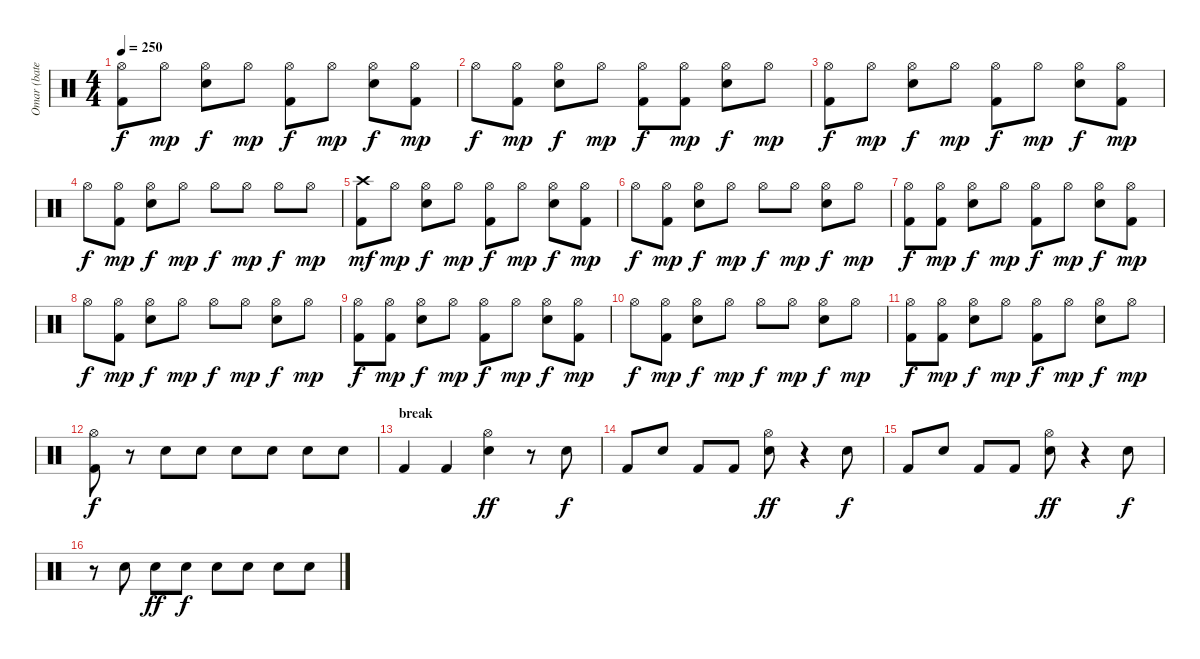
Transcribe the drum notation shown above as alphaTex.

\track ("Omar (batería)" "Omar (bate") {instrument percussion}
\staff {score}
\articulation defaults
\ts (4 4)
\tempo 250
\clef neutral
\ks c
("Hi-Hat (open)" "Kick (hit) 2").8{dy f} "Hi-Hat (open)".8{dy mp} ("Hi-Hat (open)" "Snare (hit) 2").8{dy f} "Hi-Hat (open)".8{dy mp} ("Hi-Hat (open)" "Kick (hit) 2").8{dy f} "Hi-Hat (open)".8{dy mp} ("Hi-Hat (open)" "Snare (hit) 2").8{dy f} ("Hi-Hat (open)" "Kick (hit) 2").8{dy mp} |
"Hi-Hat (open)".8{dy f} ("Hi-Hat (open)" "Kick (hit) 2").8{dy mp} ("Hi-Hat (open)" "Snare (hit) 2").8{dy f} "Hi-Hat (open)".8{dy mp} ("Hi-Hat (open)" "Kick (hit) 2").8{dy f} ("Hi-Hat (open)" "Kick (hit) 2").8{dy mp} ("Hi-Hat (open)" "Snare (hit) 2").8{dy f} "Hi-Hat (open)".8{dy mp} |
("Hi-Hat (open)" "Kick (hit) 2").8{dy f} "Hi-Hat (open)".8{dy mp} ("Hi-Hat (open)" "Snare (hit) 2").8{dy f} "Hi-Hat (open)".8{dy mp} ("Hi-Hat (open)" "Kick (hit) 2").8{dy f} "Hi-Hat (open)".8{dy mp} ("Hi-Hat (open)" "Snare (hit) 2").8{dy f} ("Hi-Hat (open)" "Kick (hit) 2").8{dy mp} |
"Hi-Hat (open)".8{dy f} ("Hi-Hat (open)" "Kick (hit) 2").8{dy mp} ("Hi-Hat (open)" "Snare (hit) 2").8{dy f} "Hi-Hat (open)".8{dy mp} "Hi-Hat (open)".8{dy f} "Hi-Hat (open)".8{dy mp} "Hi-Hat (open)".8{dy f} "Hi-Hat (open)".8{dy mp} |
\section ("" "")
("Crash high (hit)" "Kick (hit) 2").8{dy mf} "Hi-Hat (open)".8{dy mp} ("Hi-Hat (open)" "Snare (hit) 2").8{dy f} "Hi-Hat (open)".8{dy mp} ("Hi-Hat (open)" "Kick (hit) 2").8{dy f} "Hi-Hat (open)".8{dy mp} ("Hi-Hat (open)" "Snare (hit) 2").8{dy f} ("Hi-Hat (open)" "Kick (hit) 2").8{dy mp} |
"Hi-Hat (open)".8{dy f} ("Hi-Hat (open)" "Kick (hit) 2").8{dy mp} ("Hi-Hat (open)" "Snare (hit) 2").8{dy f} "Hi-Hat (open)".8{dy mp} "Hi-Hat (open)".8{dy f} "Hi-Hat (open)".8{dy mp} ("Hi-Hat (open)" "Snare (hit) 2").8{dy f} "Hi-Hat (open)".8{dy mp} |
("Hi-Hat (open)" "Kick (hit) 2").8{dy f} ("Hi-Hat (open)" "Kick (hit) 2").8{dy mp} ("Hi-Hat (open)" "Snare (hit) 2").8{dy f} "Hi-Hat (open)".8{dy mp} ("Hi-Hat (open)" "Kick (hit) 2").8{dy f} "Hi-Hat (open)".8{dy mp} ("Hi-Hat (open)" "Snare (hit) 2").8{dy f} ("Hi-Hat (open)" "Kick (hit) 2").8{dy mp} |
"Hi-Hat (open)".8{dy f} ("Hi-Hat (open)" "Kick (hit) 2").8{dy mp} ("Hi-Hat (open)" "Snare (hit) 2").8{dy f} "Hi-Hat (open)".8{dy mp} "Hi-Hat (open)".8{dy f} "Hi-Hat (open)".8{dy mp} ("Hi-Hat (open)" "Snare (hit) 2").8{dy f} "Hi-Hat (open)".8{dy mp} |
("Hi-Hat (open)" "Kick (hit) 2").8{dy f} ("Hi-Hat (open)" "Kick (hit) 2").8{dy mp} ("Hi-Hat (open)" "Snare (hit) 2").8{dy f} "Hi-Hat (open)".8{dy mp} ("Hi-Hat (open)" "Kick (hit) 2").8{dy f} "Hi-Hat (open)".8{dy mp} ("Hi-Hat (open)" "Snare (hit) 2").8{dy f} ("Hi-Hat (open)" "Kick (hit) 2").8{dy mp} |
"Hi-Hat (open)".8{dy f} ("Hi-Hat (open)" "Kick (hit) 2").8{dy mp} ("Hi-Hat (open)" "Snare (hit) 2").8{dy f} "Hi-Hat (open)".8{dy mp} "Hi-Hat (open)".8{dy f} "Hi-Hat (open)".8{dy mp} ("Hi-Hat (open)" "Snare (hit) 2").8{dy f} "Hi-Hat (open)".8{dy mp} |
("Hi-Hat (open)" "Kick (hit) 2").8{dy f} ("Hi-Hat (open)" "Kick (hit) 2").8{dy mp} ("Hi-Hat (open)" "Snare (hit) 2").8{dy f} "Hi-Hat (open)".8{dy mp} ("Hi-Hat (open)" "Kick (hit) 2").8{dy f} "Hi-Hat (open)".8{dy mp} ("Hi-Hat (open)" "Snare (hit) 2").8{dy f} "Hi-Hat (open)".8{dy mp} |
("Hi-Hat (open)" "Kick (hit) 2").8{dy f} r.8 "Snare (hit) 2".8 "Snare (hit) 2".8 "Snare (hit) 2".8 "Snare (hit) 2".8 "Snare (hit) 2".8 "Snare (hit) 2".8 |
\section ("" "break")
"Kick (hit) 2".4 "Kick (hit) 2".4 ("Hi-Hat (open)" "Snare (hit) 2").4{dy ff} r.8 "Snare (hit) 2".8{dy f} |
"Kick (hit) 2".8 "Snare (hit) 2".8 "Kick (hit) 2".8 "Kick (hit) 2".8 ("Hi-Hat (open)" "Snare (hit) 2").8{dy ff} r.4 "Snare (hit) 2".8{dy f} |
"Kick (hit) 2".8 "Snare (hit) 2".8 "Kick (hit) 2".8 "Kick (hit) 2".8 ("Hi-Hat (open)" "Snare (hit) 2").8{dy ff} r.4 "Snare (hit) 2".8{dy f} |
r.8 "Snare (hit) 2".8 "Snare (hit) 2".8{dy ff} "Snare (hit) 2".8{dy f} "Snare (hit) 2".8 "Snare (hit) 2".8 "Snare (hit) 2".8 "Snare (hit) 2".8
